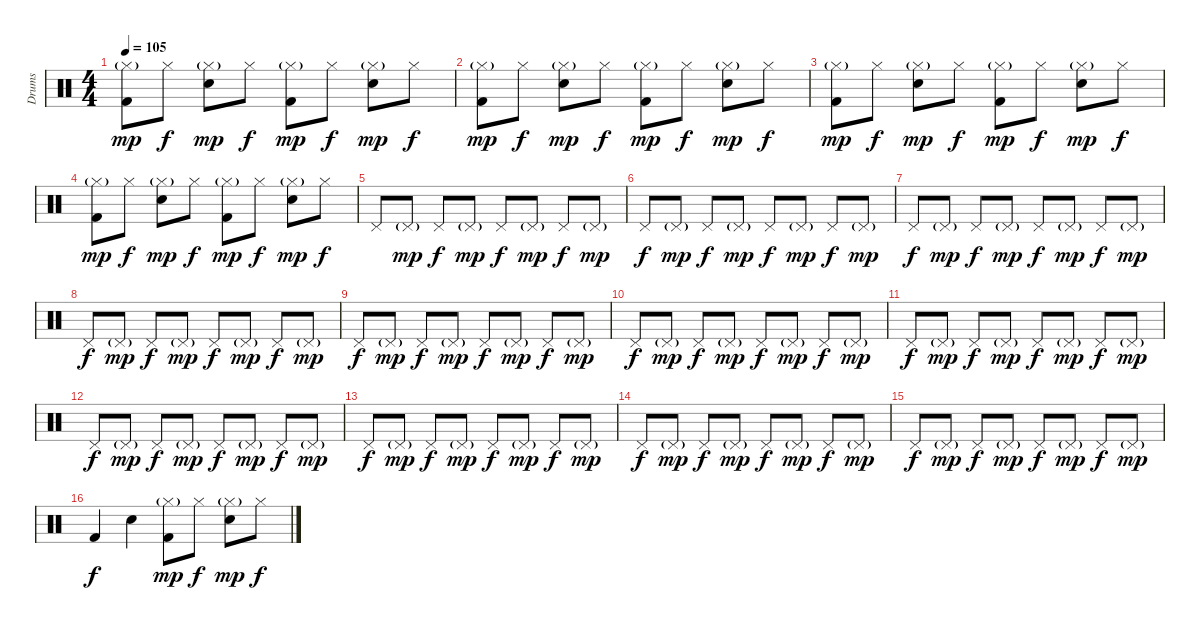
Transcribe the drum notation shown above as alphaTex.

\track ("Drums" "Drums") {instrument percussion}
\staff {score}
\articulation defaults
\ts (4 4)
\tempo 105
\clef neutral
\ks c
("Hi-Hat (closed)"{g} "Kick (hit) 2").8{dy mp} "Hi-Hat (closed)".8{dy f} ("Hi-Hat (closed)"{g} "Snare (hit) 2").8{dy mp} "Hi-Hat (closed)".8{dy f} ("Hi-Hat (closed)"{g} "Kick (hit) 2").8{dy mp} "Hi-Hat (closed)".8{dy f} ("Hi-Hat (closed)"{g} "Snare (hit) 2").8{dy mp} "Hi-Hat (closed)".8{dy f} |
("Hi-Hat (closed)"{g} "Kick (hit) 2").8{dy mp} "Hi-Hat (closed)".8{dy f} ("Hi-Hat (closed)"{g} "Snare (hit) 2").8{dy mp} "Hi-Hat (closed)".8{dy f} ("Hi-Hat (closed)"{g} "Kick (hit) 2").8{dy mp} "Hi-Hat (closed)".8{dy f} ("Hi-Hat (closed)"{g} "Snare (hit) 2").8{dy mp} "Hi-Hat (closed)".8{dy f} |
("Hi-Hat (closed)"{g} "Kick (hit) 2").8{dy mp} "Hi-Hat (closed)".8{dy f} ("Hi-Hat (closed)"{g} "Snare (hit) 2").8{dy mp} "Hi-Hat (closed)".8{dy f} ("Hi-Hat (closed)"{g} "Kick (hit) 2").8{dy mp} "Hi-Hat (closed)".8{dy f} ("Hi-Hat (closed)"{g} "Snare (hit) 2").8{dy mp} "Hi-Hat (closed)".8{dy f} |
("Hi-Hat (closed)"{g} "Kick (hit) 2").8{dy mp} "Hi-Hat (closed)".8{dy f} ("Hi-Hat (closed)"{g} "Snare (hit) 2").8{dy mp} "Hi-Hat (closed)".8{dy f} ("Hi-Hat (closed)"{g} "Kick (hit) 2").8{dy mp} "Hi-Hat (closed)".8{dy f} ("Hi-Hat (closed)"{g} "Snare (hit) 2").8{dy mp} "Hi-Hat (closed)".8{dy f} |
"Pedal Hi-Hat (hit)".8 "Pedal Hi-Hat (hit)"{g}.8{dy mp} "Pedal Hi-Hat (hit)".8{dy f} "Pedal Hi-Hat (hit)"{g}.8{dy mp} "Pedal Hi-Hat (hit)".8{dy f} "Pedal Hi-Hat (hit)"{g}.8{dy mp} "Pedal Hi-Hat (hit)".8{dy f} "Pedal Hi-Hat (hit)"{g}.8{dy mp} |
"Pedal Hi-Hat (hit)".8{dy f} "Pedal Hi-Hat (hit)"{g}.8{dy mp} "Pedal Hi-Hat (hit)".8{dy f} "Pedal Hi-Hat (hit)"{g}.8{dy mp} "Pedal Hi-Hat (hit)".8{dy f} "Pedal Hi-Hat (hit)"{g}.8{dy mp} "Pedal Hi-Hat (hit)".8{dy f} "Pedal Hi-Hat (hit)"{g}.8{dy mp} |
"Pedal Hi-Hat (hit)".8{dy f} "Pedal Hi-Hat (hit)"{g}.8{dy mp} "Pedal Hi-Hat (hit)".8{dy f} "Pedal Hi-Hat (hit)"{g}.8{dy mp} "Pedal Hi-Hat (hit)".8{dy f} "Pedal Hi-Hat (hit)"{g}.8{dy mp} "Pedal Hi-Hat (hit)".8{dy f} "Pedal Hi-Hat (hit)"{g}.8{dy mp} |
"Pedal Hi-Hat (hit)".8{dy f} "Pedal Hi-Hat (hit)"{g}.8{dy mp} "Pedal Hi-Hat (hit)".8{dy f} "Pedal Hi-Hat (hit)"{g}.8{dy mp} "Pedal Hi-Hat (hit)".8{dy f} "Pedal Hi-Hat (hit)"{g}.8{dy mp} "Pedal Hi-Hat (hit)".8{dy f} "Pedal Hi-Hat (hit)"{g}.8{dy mp} |
"Pedal Hi-Hat (hit)".8{dy f} "Pedal Hi-Hat (hit)"{g}.8{dy mp} "Pedal Hi-Hat (hit)".8{dy f} "Pedal Hi-Hat (hit)"{g}.8{dy mp} "Pedal Hi-Hat (hit)".8{dy f} "Pedal Hi-Hat (hit)"{g}.8{dy mp} "Pedal Hi-Hat (hit)".8{dy f} "Pedal Hi-Hat (hit)"{g}.8{dy mp} |
"Pedal Hi-Hat (hit)".8{dy f} "Pedal Hi-Hat (hit)"{g}.8{dy mp} "Pedal Hi-Hat (hit)".8{dy f} "Pedal Hi-Hat (hit)"{g}.8{dy mp} "Pedal Hi-Hat (hit)".8{dy f} "Pedal Hi-Hat (hit)"{g}.8{dy mp} "Pedal Hi-Hat (hit)".8{dy f} "Pedal Hi-Hat (hit)"{g}.8{dy mp} |
"Pedal Hi-Hat (hit)".8{dy f} "Pedal Hi-Hat (hit)"{g}.8{dy mp} "Pedal Hi-Hat (hit)".8{dy f} "Pedal Hi-Hat (hit)"{g}.8{dy mp} "Pedal Hi-Hat (hit)".8{dy f} "Pedal Hi-Hat (hit)"{g}.8{dy mp} "Pedal Hi-Hat (hit)".8{dy f} "Pedal Hi-Hat (hit)"{g}.8{dy mp} |
"Pedal Hi-Hat (hit)".8{dy f} "Pedal Hi-Hat (hit)"{g}.8{dy mp} "Pedal Hi-Hat (hit)".8{dy f} "Pedal Hi-Hat (hit)"{g}.8{dy mp} "Pedal Hi-Hat (hit)".8{dy f} "Pedal Hi-Hat (hit)"{g}.8{dy mp} "Pedal Hi-Hat (hit)".8{dy f} "Pedal Hi-Hat (hit)"{g}.8{dy mp} |
"Pedal Hi-Hat (hit)".8{dy f} "Pedal Hi-Hat (hit)"{g}.8{dy mp} "Pedal Hi-Hat (hit)".8{dy f} "Pedal Hi-Hat (hit)"{g}.8{dy mp} "Pedal Hi-Hat (hit)".8{dy f} "Pedal Hi-Hat (hit)"{g}.8{dy mp} "Pedal Hi-Hat (hit)".8{dy f} "Pedal Hi-Hat (hit)"{g}.8{dy mp} |
"Pedal Hi-Hat (hit)".8{dy f} "Pedal Hi-Hat (hit)"{g}.8{dy mp} "Pedal Hi-Hat (hit)".8{dy f} "Pedal Hi-Hat (hit)"{g}.8{dy mp} "Pedal Hi-Hat (hit)".8{dy f} "Pedal Hi-Hat (hit)"{g}.8{dy mp} "Pedal Hi-Hat (hit)".8{dy f} "Pedal Hi-Hat (hit)"{g}.8{dy mp} |
"Pedal Hi-Hat (hit)".8{dy f} "Pedal Hi-Hat (hit)"{g}.8{dy mp} "Pedal Hi-Hat (hit)".8{dy f} "Pedal Hi-Hat (hit)"{g}.8{dy mp} "Pedal Hi-Hat (hit)".8{dy f} "Pedal Hi-Hat (hit)"{g}.8{dy mp} "Pedal Hi-Hat (hit)".8{dy f} "Pedal Hi-Hat (hit)"{g}.8{dy mp} |
"Kick (hit) 2".4{dy f} "Snare (hit) 2".4 ("Hi-Hat (closed)"{g} "Kick (hit) 2").8{dy mp} "Hi-Hat (closed)".8{dy f} ("Hi-Hat (closed)"{g} "Snare (hit) 2").8{dy mp} "Hi-Hat (closed)".8{dy f}
